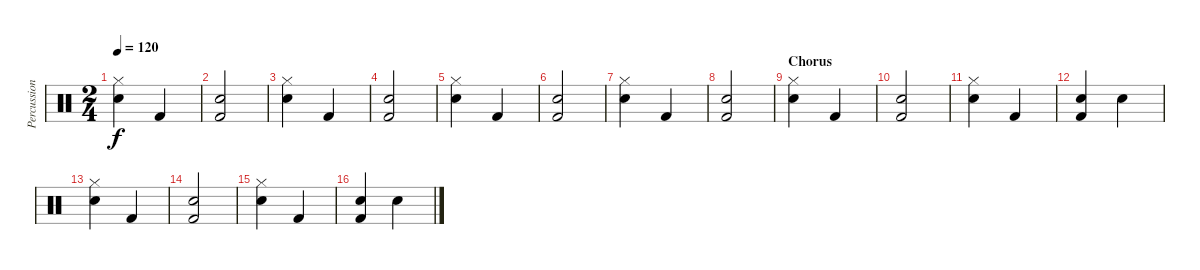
\track ("Percussion" "Percussion") {instrument percussion}
\staff {score}
\articulation defaults
\ts (2 4)
\tempo 120
\clef neutral
\ks c
("Hi-Hat (closed)" "Snare (hit) 2").4{dy f} "Kick (hit) 2".4 |
("Kick (hit) 2" "Snare (hit) 2").2 |
("Hi-Hat (closed)" "Snare (hit) 2").4 "Kick (hit) 2".4 |
("Kick (hit) 2" "Snare (hit) 2").2 |
("Hi-Hat (closed)" "Snare (hit) 2").4 "Kick (hit) 2".4 |
("Kick (hit) 2" "Snare (hit) 2").2 |
("Hi-Hat (closed)" "Snare (hit) 2").4 "Kick (hit) 2".4 |
("Kick (hit) 2" "Snare (hit) 2").2 |
\section ("" "Chorus")
("Hi-Hat (closed)" "Snare (hit) 2").4 "Kick (hit) 2".4 |
("Kick (hit) 2" "Snare (hit) 2").2 |
("Hi-Hat (closed)" "Snare (hit) 2").4 "Kick (hit) 2".4 |
("Kick (hit) 2" "Snare (hit) 2").4 "Snare (hit) 2".4 |
("Hi-Hat (closed)" "Snare (hit) 2").4 "Kick (hit) 2".4 |
("Kick (hit) 2" "Snare (hit) 2").2 |
("Hi-Hat (closed)" "Snare (hit) 2").4 "Kick (hit) 2".4 |
("Kick (hit) 2" "Snare (hit) 2").4 "Snare (hit) 2".4
